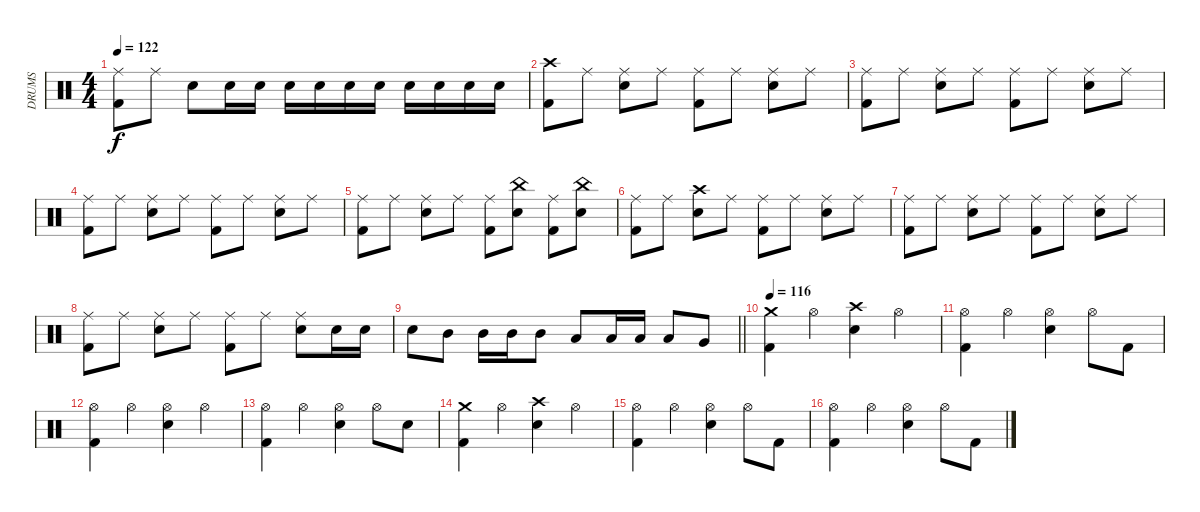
\track ("DRUMS" "DRUMS") {instrument percussion}
\staff {score}
\articulation defaults
\ts (4 4)
\tempo 122
\clef neutral
\ks c
("Ride (middle)" "Kick (hit) 2").8{dy f} "Ride (middle)".8 "Snare (hit) 2".8 "Snare (hit) 2".16 "Snare (hit) 2".16 "Snare (hit) 2".16 "Snare (hit) 2".16 "Snare (hit) 2".16 "Snare (hit) 2".16 "Snare (hit) 2".16 "Snare (hit) 2".16 "Snare (hit) 2".16 "Snare (hit) 2".16 |
("Crash high (hit)" "Kick (hit) 2").8 "Ride (middle)".8 ("Ride (middle)" "Snare (hit) 2").8 "Ride (middle)".8 ("Ride (middle)" "Kick (hit) 2").8 "Ride (middle)".8 ("Ride (middle)" "Snare (hit) 2").8 "Ride (middle)".8 |
("Ride (middle)" "Kick (hit) 2").8 "Ride (middle)".8 ("Ride (middle)" "Snare (hit) 2").8 "Ride (middle)".8 ("Ride (middle)" "Kick (hit) 2").8 "Ride (middle)".8 ("Ride (middle)" "Snare (hit) 2").8 "Ride (middle)".8 |
("Ride (middle)" "Kick (hit) 2").8 "Ride (middle)".8 ("Ride (middle)" "Snare (hit) 2").8 "Ride (middle)".8 ("Ride (middle)" "Kick (hit) 2").8 "Ride (middle)".8 ("Ride (middle)" "Snare (hit) 2").8 "Ride (middle)".8 |
("Ride (middle)" "Kick (hit) 2").8 "Ride (middle)".8 ("Ride (middle)" "Snare (hit) 2").8 "Ride (middle)".8 ("Ride (middle)" "Kick (hit) 2").8 ("China (hit)" "Snare (hit) 2").8 ("Ride (middle)" "Kick (hit) 2").8 ("China (hit)" "Snare (hit) 2").8 |
("Ride (middle)" "Kick (hit) 2").8 "Ride (middle)".8 ("Crash high (hit)" "Snare (hit) 2").8 "Ride (middle)".8 ("Ride (middle)" "Kick (hit) 2").8 "Ride (middle)".8 ("Ride (middle)" "Snare (hit) 2").8 "Ride (middle)".8 |
("Ride (middle)" "Kick (hit) 2").8 "Ride (middle)".8 ("Ride (middle)" "Snare (hit) 2").8 "Ride (middle)".8 ("Ride (middle)" "Kick (hit) 2").8 "Ride (middle)".8 ("Ride (middle)" "Snare (hit) 2").8 "Ride (middle)".8 |
("Ride (middle)" "Kick (hit) 2").8 "Ride (middle)".8 ("Ride (middle)" "Snare (hit) 2").8 "Ride (middle)".8 ("Ride (middle)" "Kick (hit) 2").8 "Ride (middle)".8 ("Ride (middle)" "Snare (hit) 2").8 "Snare (hit) 2".16 "Snare (hit) 2".16 |
\barLineRight lightlight "Snare (hit) 2".8 "Mid Tom (hit)".8 "Mid Tom (hit)".16 "Mid Tom (hit)".16 "Mid Tom (hit)".8 "Low Tom (hit)".8 "Low Tom (hit)".16 "Low Tom (hit)".16 "Low Tom (hit)".8 "Very Low Tom (hit)".8
|
\tempo 116
("Crash medium (hit)" "Kick (hit) 2").4 "Hi-Hat (open)".4 ("Crash high (hit)" "Snare (hit) 2").4 "Hi-Hat (open)".4 |
("Hi-Hat (open)" "Kick (hit) 2").4 "Hi-Hat (open)".4 ("Hi-Hat (open)" "Snare (hit) 2").4 "Hi-Hat (open)".8 "Kick (hit) 2".8 |
("Hi-Hat (open)" "Kick (hit) 2").4 "Hi-Hat (open)".4 ("Hi-Hat (open)" "Snare (hit) 2").4 "Hi-Hat (open)".4 |
("Hi-Hat (open)" "Kick (hit) 2").4 "Hi-Hat (open)".4 ("Hi-Hat (open)" "Snare (hit) 2").4 "Hi-Hat (open)".8 "Snare (hit) 2".8 |
("Crash medium (hit)" "Kick (hit) 2").4 "Hi-Hat (open)".4 ("Crash high (hit)" "Snare (hit) 2").4 "Hi-Hat (open)".4 |
("Hi-Hat (open)" "Kick (hit) 2").4 "Hi-Hat (open)".4 ("Hi-Hat (open)" "Snare (hit) 2").4 "Hi-Hat (open)".8 "Kick (hit) 2".8 |
("Hi-Hat (open)" "Kick (hit) 2").4 "Hi-Hat (open)".4 ("Hi-Hat (open)" "Snare (hit) 2").4 "Hi-Hat (open)".8 "Kick (hit) 2".8
